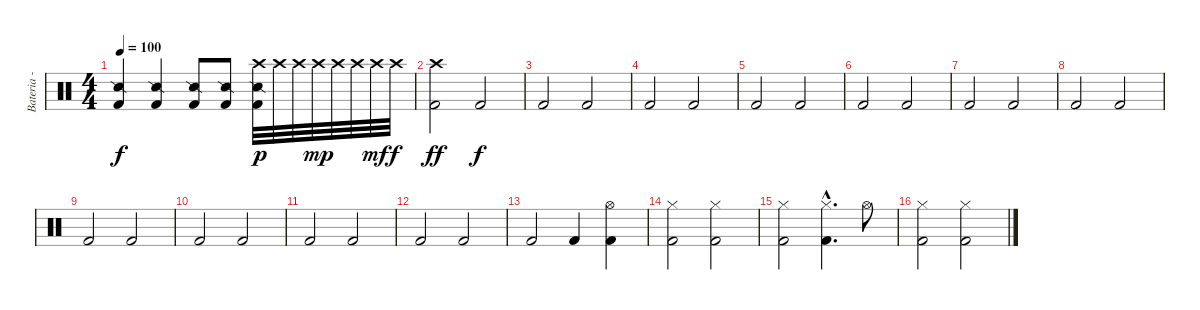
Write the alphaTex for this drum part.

\track ("Bateria - Drums" "Bateria - ") {instrument percussion}
\staff {score}
\articulation defaults
\ts (4 4)
\tempo 100
\clef neutral
\ks c
("Snare (side stick) 2" "Kick (hit) 2").4{dy f} ("Snare (side stick) 2" "Kick (hit) 2").4 ("Snare (side stick) 2" "Kick (hit) 2").8 ("Snare (side stick) 2" "Kick (hit) 2").8 ("Crash high (hit)" "Snare (side stick) 2" "Kick (hit) 2").32{dy p} "Crash high (hit)".32 "Crash high (hit)".32 "Crash high (hit)".32{dy mp} "Crash high (hit)".32 "Crash high (hit)".32 "Crash high (hit)".32{dy mf} "Crash high (hit)".32{dy f} |
("Crash high (hit)" "Kick (hit) 2").2{dy ff} "Kick (hit) 2".2{dy f} |
"Kick (hit) 2".2 "Kick (hit) 2".2 |
"Kick (hit) 2".2 "Kick (hit) 2".2 |
"Kick (hit) 2".2 "Kick (hit) 2".2 |
"Kick (hit) 2".2 "Kick (hit) 2".2 |
"Kick (hit) 2".2 "Kick (hit) 2".2 |
"Kick (hit) 2".2 "Kick (hit) 2".2 |
"Kick (hit) 2".2 "Kick (hit) 2".2 |
"Kick (hit) 2".2 "Kick (hit) 2".2 |
"Kick (hit) 2".2 "Kick (hit) 2".2 |
"Kick (hit) 2".2 "Kick (hit) 2".2 |
"Kick (hit) 2".2 "Kick (hit) 2".4 ("Hi-Hat (open)" "Kick (hit) 2").4 |
("Hi-Hat (closed)" "Kick (hit) 2").2 ("Hi-Hat (closed)" "Kick (hit) 2").2 |
("Hi-Hat (closed)" "Kick (hit) 2").2 ("Hi-Hat (closed)"{hac} "Kick (hit) 2"{hac}).4{d} "Hi-Hat (open)".8 |
("Hi-Hat (closed)" "Kick (hit) 2").2 ("Hi-Hat (closed)" "Kick (hit) 2").2
